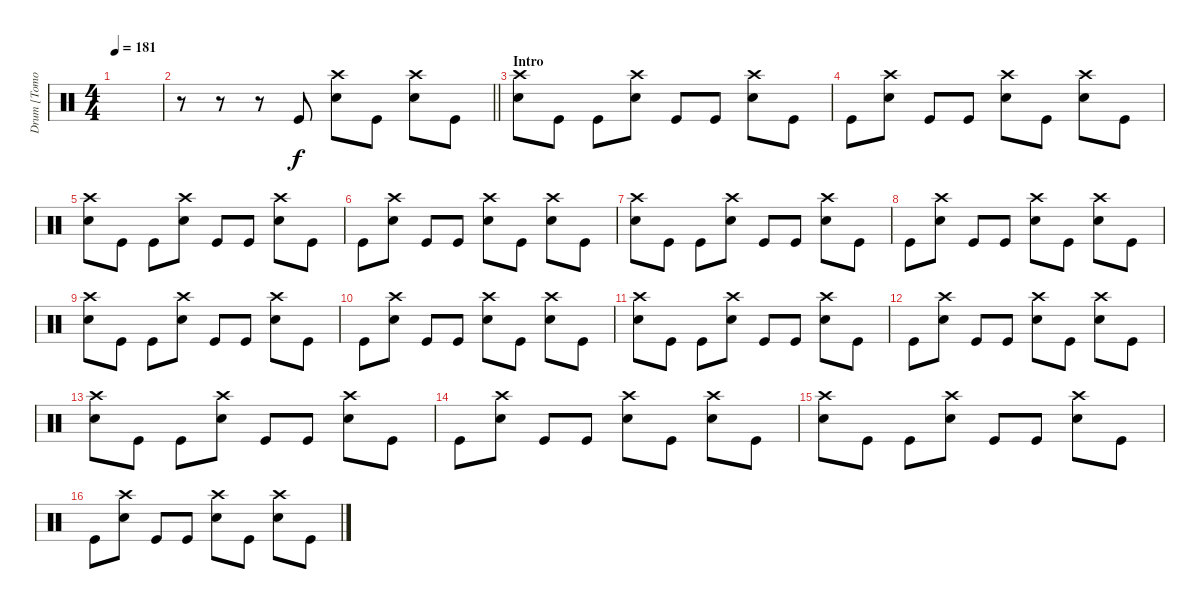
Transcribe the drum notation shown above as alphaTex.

\track ("Drum [Tomoya]" "Drum [Tomo") {instrument percussion}
\staff {score}
\articulation defaults
\ts (4 4)
\tempo 181
\clef neutral
\ks c
|
\barLineRight lightlight
r.8 r.8 r.8 "Kick (hit)".8 ("Snare (hit) 2" "Crash high (hit)").8 "Kick (hit)".8 ("Snare (hit) 2" "Crash high (hit)").8 "Kick (hit)".8 |
\section ("" "Intro")
("Snare (hit) 2" "Crash high (hit)").8 "Kick (hit)".8 "Kick (hit)".8 ("Snare (hit) 2" "Crash high (hit)").8 "Kick (hit)".8 "Kick (hit)".8 ("Snare (hit) 2" "Crash high (hit)").8 "Kick (hit)".8 |
"Kick (hit)".8 ("Snare (hit) 2" "Crash high (hit)").8 "Kick (hit)".8 "Kick (hit)".8 ("Snare (hit) 2" "Crash high (hit)").8 "Kick (hit)".8 ("Snare (hit) 2" "Crash high (hit)").8 "Kick (hit)".8 |
("Snare (hit) 2" "Crash high (hit)").8 "Kick (hit)".8 "Kick (hit)".8 ("Snare (hit) 2" "Crash high (hit)").8 "Kick (hit)".8 "Kick (hit)".8 ("Snare (hit) 2" "Crash high (hit)").8 "Kick (hit)".8 |
"Kick (hit)".8 ("Snare (hit) 2" "Crash high (hit)").8 "Kick (hit)".8 "Kick (hit)".8 ("Snare (hit) 2" "Crash high (hit)").8 "Kick (hit)".8 ("Snare (hit) 2" "Crash high (hit)").8 "Kick (hit)".8 |
("Snare (hit) 2" "Crash high (hit)").8 "Kick (hit)".8 "Kick (hit)".8 ("Snare (hit) 2" "Crash high (hit)").8 "Kick (hit)".8 "Kick (hit)".8 ("Snare (hit) 2" "Crash high (hit)").8 "Kick (hit)".8 |
"Kick (hit)".8 ("Snare (hit) 2" "Crash high (hit)").8 "Kick (hit)".8 "Kick (hit)".8 ("Snare (hit) 2" "Crash high (hit)").8 "Kick (hit)".8 ("Snare (hit) 2" "Crash high (hit)").8 "Kick (hit)".8 |
("Snare (hit) 2" "Crash high (hit)").8 "Kick (hit)".8 "Kick (hit)".8 ("Snare (hit) 2" "Crash high (hit)").8 "Kick (hit)".8 "Kick (hit)".8 ("Snare (hit) 2" "Crash high (hit)").8 "Kick (hit)".8 |
"Kick (hit)".8 ("Snare (hit) 2" "Crash high (hit)").8 "Kick (hit)".8 "Kick (hit)".8 ("Snare (hit) 2" "Crash high (hit)").8 "Kick (hit)".8 ("Snare (hit) 2" "Crash high (hit)").8 "Kick (hit)".8 |
("Snare (hit) 2" "Crash high (hit)").8 "Kick (hit)".8 "Kick (hit)".8 ("Snare (hit) 2" "Crash high (hit)").8 "Kick (hit)".8 "Kick (hit)".8 ("Snare (hit) 2" "Crash high (hit)").8 "Kick (hit)".8 |
"Kick (hit)".8 ("Snare (hit) 2" "Crash high (hit)").8 "Kick (hit)".8 "Kick (hit)".8 ("Snare (hit) 2" "Crash high (hit)").8 "Kick (hit)".8 ("Snare (hit) 2" "Crash high (hit)").8 "Kick (hit)".8 |
("Snare (hit) 2" "Crash high (hit)").8 "Kick (hit)".8 "Kick (hit)".8 ("Snare (hit) 2" "Crash high (hit)").8 "Kick (hit)".8 "Kick (hit)".8 ("Snare (hit) 2" "Crash high (hit)").8 "Kick (hit)".8 |
"Kick (hit)".8 ("Snare (hit) 2" "Crash high (hit)").8 "Kick (hit)".8 "Kick (hit)".8 ("Snare (hit) 2" "Crash high (hit)").8 "Kick (hit)".8 ("Snare (hit) 2" "Crash high (hit)").8 "Kick (hit)".8 |
("Snare (hit) 2" "Crash high (hit)").8 "Kick (hit)".8 "Kick (hit)".8 ("Snare (hit) 2" "Crash high (hit)").8 "Kick (hit)".8 "Kick (hit)".8 ("Snare (hit) 2" "Crash high (hit)").8 "Kick (hit)".8 |
"Kick (hit)".8 ("Snare (hit) 2" "Crash high (hit)").8 "Kick (hit)".8 "Kick (hit)".8 ("Snare (hit) 2" "Crash high (hit)").8 "Kick (hit)".8 ("Snare (hit) 2" "Crash high (hit)").8 "Kick (hit)".8
